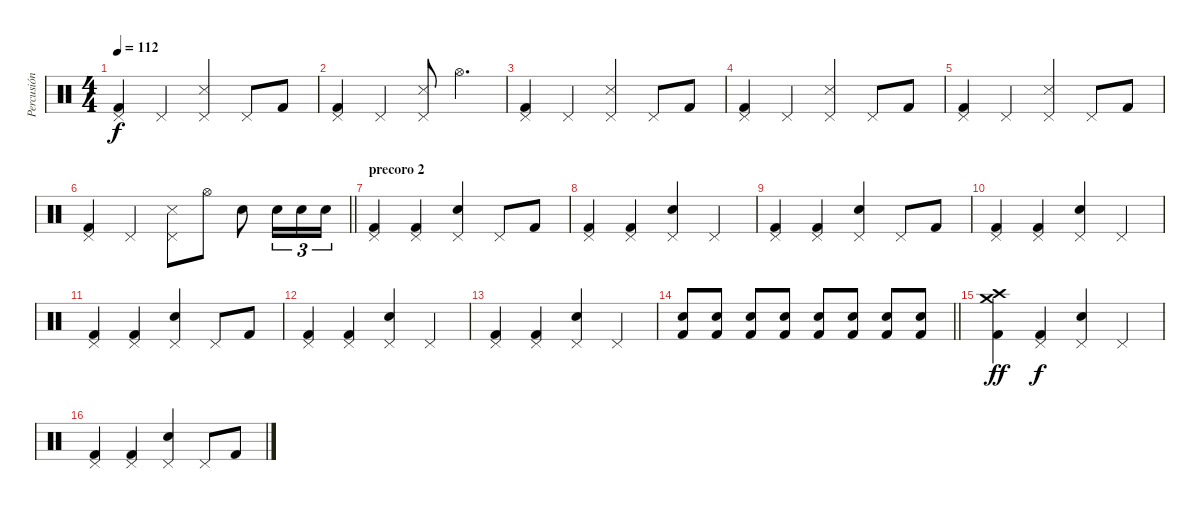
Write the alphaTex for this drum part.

\track ("Percusión" "Percusión") {instrument percussion}
\staff {score}
\articulation defaults
\ts (4 4)
\tempo 112
\clef neutral
\ks c
("Pedal Hi-Hat (hit)" "Kick (hit) 2").4{dy f} "Pedal Hi-Hat (hit)".4 ("Pedal Hi-Hat (hit)" "Snare (side stick) 3").4 "Pedal Hi-Hat (hit)".8 "Kick (hit) 2".8 |
("Pedal Hi-Hat (hit)" "Kick (hit) 2").4 "Pedal Hi-Hat (hit)".4 ("Pedal Hi-Hat (hit)" "Snare (side stick) 3").8 "Hi-Hat (open)".4{d} |
("Pedal Hi-Hat (hit)" "Kick (hit) 2").4 "Pedal Hi-Hat (hit)".4 ("Pedal Hi-Hat (hit)" "Snare (side stick) 3").4 "Pedal Hi-Hat (hit)".8 "Kick (hit) 2".8 |
("Pedal Hi-Hat (hit)" "Kick (hit) 2").4 "Pedal Hi-Hat (hit)".4 ("Pedal Hi-Hat (hit)" "Snare (side stick) 3").4 "Pedal Hi-Hat (hit)".8 "Kick (hit) 2".8 |
("Pedal Hi-Hat (hit)" "Kick (hit) 2").4 "Pedal Hi-Hat (hit)".4 ("Pedal Hi-Hat (hit)" "Snare (side stick) 3").4 "Pedal Hi-Hat (hit)".8 "Kick (hit) 2".8 |
\barLineRight lightlight
("Pedal Hi-Hat (hit)" "Kick (hit) 2").4 "Pedal Hi-Hat (hit)".4 ("Pedal Hi-Hat (hit)" "Snare (side stick) 3").8 "Hi-Hat (open)".8 "Electric Snare (hit)".8 "Electric Snare (hit)".16{tu (3 2)} "Electric Snare (hit)".16{tu (3 2)} "Electric Snare (hit)".16{tu (3 2)} |
\section ("" "precoro 2")
("Kick (hit) 2" "Pedal Hi-Hat (hit)").4 ("Kick (hit) 2" "Pedal Hi-Hat (hit)").4 ("Electric Snare (hit)" "Pedal Hi-Hat (hit)").4 "Pedal Hi-Hat (hit)".8 "Kick (hit) 2".8 |
("Kick (hit) 2" "Pedal Hi-Hat (hit)").4 ("Kick (hit) 2" "Pedal Hi-Hat (hit)").4 ("Electric Snare (hit)" "Pedal Hi-Hat (hit)").4 "Pedal Hi-Hat (hit)".4 |
("Kick (hit) 2" "Pedal Hi-Hat (hit)").4 ("Kick (hit) 2" "Pedal Hi-Hat (hit)").4 ("Electric Snare (hit)" "Pedal Hi-Hat (hit)").4 "Pedal Hi-Hat (hit)".8 "Kick (hit) 2".8 |
("Kick (hit) 2" "Pedal Hi-Hat (hit)").4 ("Kick (hit) 2" "Pedal Hi-Hat (hit)").4 ("Electric Snare (hit)" "Pedal Hi-Hat (hit)").4 "Pedal Hi-Hat (hit)".4 |
("Kick (hit) 2" "Pedal Hi-Hat (hit)").4 ("Kick (hit) 2" "Pedal Hi-Hat (hit)").4 ("Electric Snare (hit)" "Pedal Hi-Hat (hit)").4 "Pedal Hi-Hat (hit)".8 "Kick (hit) 2".8 |
("Kick (hit) 2" "Pedal Hi-Hat (hit)").4 ("Kick (hit) 2" "Pedal Hi-Hat (hit)").4 ("Electric Snare (hit)" "Pedal Hi-Hat (hit)").4 "Pedal Hi-Hat (hit)".4 |
("Kick (hit) 2" "Pedal Hi-Hat (hit)").4 ("Kick (hit) 2" "Pedal Hi-Hat (hit)").4 ("Electric Snare (hit)" "Pedal Hi-Hat (hit)").4 "Pedal Hi-Hat (hit)".4 |
\barLineRight lightlight
("Kick (hit) 2" "Snare (hit) 2").8 ("Kick (hit) 2" "Snare (hit) 2").8 ("Kick (hit) 2" "Snare (hit) 2").8 ("Kick (hit) 2" "Snare (hit) 2").8 ("Kick (hit) 2" "Snare (hit) 2").8 ("Kick (hit) 2" "Snare (hit) 2").8 ("Kick (hit) 2" "Snare (hit) 2").8 ("Kick (hit) 2" "Snare (hit) 2").8 |
("Kick (hit) 2" "Crash medium (hit)" "Crash high (hit)").4{dy ff} ("Kick (hit) 2" "Pedal Hi-Hat (hit)").4{dy f} ("Electric Snare (hit)" "Pedal Hi-Hat (hit)").4 "Pedal Hi-Hat (hit)".4 |
("Kick (hit) 2" "Pedal Hi-Hat (hit)").4 ("Kick (hit) 2" "Pedal Hi-Hat (hit)").4 ("Electric Snare (hit)" "Pedal Hi-Hat (hit)").4 "Pedal Hi-Hat (hit)".8 "Kick (hit) 2".8
